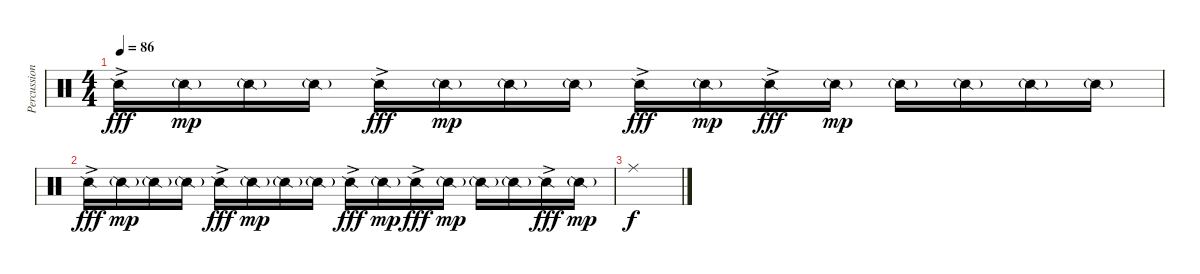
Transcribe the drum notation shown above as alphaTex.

\track ("Percussion" "Percussion") {instrument percussion}
\staff {score}
\articulation defaults
\ts (4 4)
\tempo 86
\clef neutral
\ks c "Snare (side stick) 2"{ac}.16{dy fff} "Snare (side stick) 2"{g}.16{dy mp} "Snare (side stick) 2"{g}.16 "Snare (side stick) 2"{g}.16 "Snare (side stick) 2"{ac}.16{dy fff} "Snare (side stick) 2"{g}.16{dy mp} "Snare (side stick) 2"{g}.16 "Snare (side stick) 2"{g}.16 "Snare (side stick) 2"{ac}.16{dy fff} "Snare (side stick) 2"{g}.16{dy mp} "Snare (side stick) 2"{ac}.16{dy fff} "Snare (side stick) 2"{g}.16{dy mp} "Snare (side stick) 2"{g}.16 "Snare (side stick) 2"{g}.16 "Snare (side stick) 2"{g}.16 "Snare (side stick) 2"{g}.16
|
"Snare (side stick) 2"{ac}.16{dy fff} "Snare (side stick) 2"{g}.16{dy mp} "Snare (side stick) 2"{g}.16 "Snare (side stick) 2"{g}.16 "Snare (side stick) 2"{ac}.16{dy fff} "Snare (side stick) 2"{g}.16{dy mp} "Snare (side stick) 2"{g}.16 "Snare (side stick) 2"{g}.16 "Snare (side stick) 2"{ac}.16{dy fff} "Snare (side stick) 2"{g}.16{dy mp} "Snare (side stick) 2"{ac}.16{dy fff} "Snare (side stick) 2"{g}.16{dy mp} "Snare (side stick) 2"{g}.16 "Snare (side stick) 2"{g}.16 "Snare (side stick) 2"{ac}.16{dy fff} "Snare (side stick) 2"{g}.16{dy mp} |
"Ride (middle)".1{dy f}
